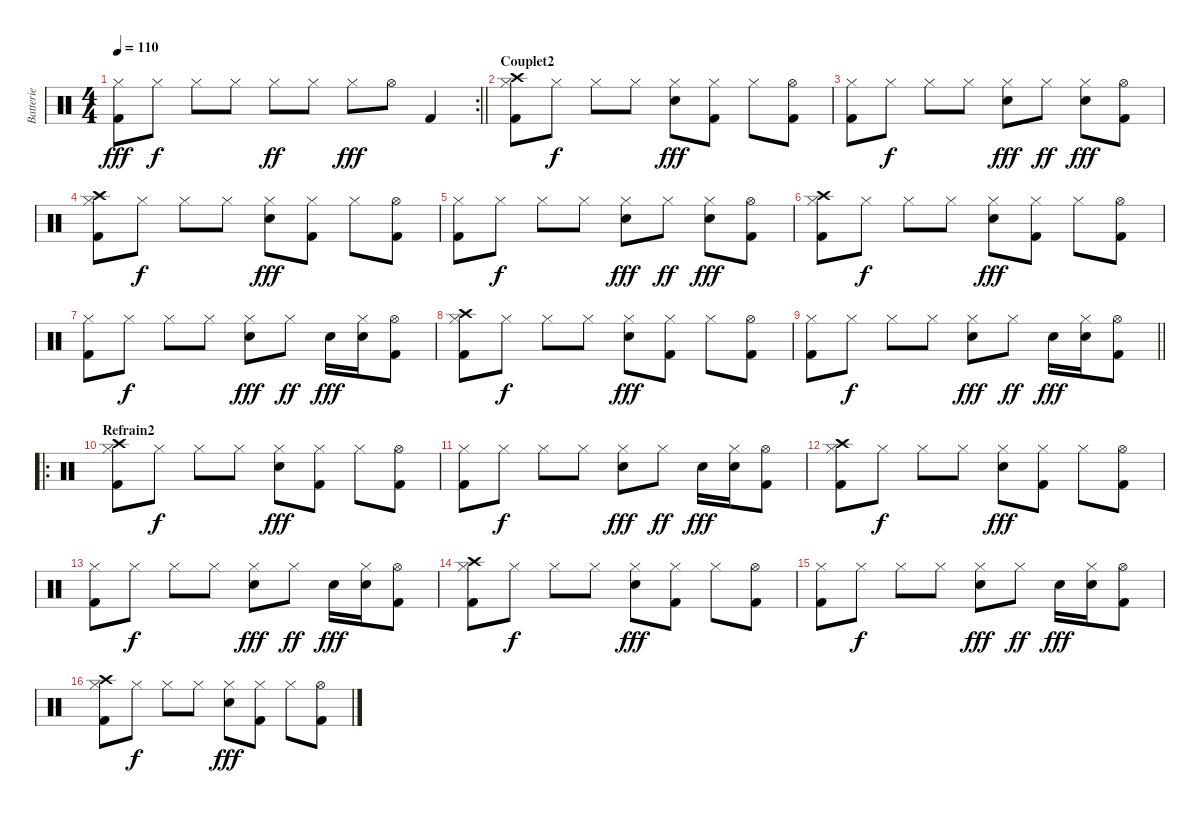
\track ("Batterie" "Batterie") {instrument percussion}
\staff {score}
\articulation defaults
\rc 2
\ts (4 4)
\tempo 110
\clef neutral
\barLineRight lightlight
\ks c
("Hi-Hat (closed)" "Kick (hit) 2").8{dy fff} "Hi-Hat (closed)".8{dy f} "Hi-Hat (closed)".8 "Hi-Hat (closed)".8 "Hi-Hat (closed)".8{dy ff} "Hi-Hat (closed)".8 "Hi-Hat (closed)".8{dy fff} "Hi-Hat (open)".8 "Kick (hit) 2".4 |
\section ("" "Couplet2")
("Hi-Hat (closed)" "Crash high (hit)" "Kick (hit) 2").8 "Hi-Hat (closed)".8{dy f} "Hi-Hat (closed)".8 "Hi-Hat (closed)".8 ("Hi-Hat (closed)" "Electric Snare (hit)").8{dy fff} ("Hi-Hat (closed)" "Kick (hit) 2").8 "Hi-Hat (closed)".8 ("Hi-Hat (open)" "Kick (hit) 2").8 |
("Hi-Hat (closed)" "Kick (hit) 2").8 "Hi-Hat (closed)".8{dy f} "Hi-Hat (closed)".8 "Hi-Hat (closed)".8 ("Hi-Hat (closed)" "Electric Snare (hit)").8{dy fff} "Hi-Hat (closed)".8{dy ff} ("Hi-Hat (closed)" "Electric Snare (hit)").8{dy fff} ("Hi-Hat (open)" "Kick (hit) 2").8 |
("Hi-Hat (closed)" "Crash high (hit)" "Kick (hit) 2").8 "Hi-Hat (closed)".8{dy f} "Hi-Hat (closed)".8 "Hi-Hat (closed)".8 ("Hi-Hat (closed)" "Electric Snare (hit)").8{dy fff} ("Hi-Hat (closed)" "Kick (hit) 2").8 "Hi-Hat (closed)".8 ("Hi-Hat (open)" "Kick (hit) 2").8 |
("Hi-Hat (closed)" "Kick (hit) 2").8 "Hi-Hat (closed)".8{dy f} "Hi-Hat (closed)".8 "Hi-Hat (closed)".8 ("Hi-Hat (closed)" "Electric Snare (hit)").8{dy fff} "Hi-Hat (closed)".8{dy ff} ("Hi-Hat (closed)" "Electric Snare (hit)").8{dy fff} ("Hi-Hat (open)" "Kick (hit) 2").8 |
("Hi-Hat (closed)" "Crash high (hit)" "Kick (hit) 2").8 "Hi-Hat (closed)".8{dy f} "Hi-Hat (closed)".8 "Hi-Hat (closed)".8 ("Hi-Hat (closed)" "Electric Snare (hit)").8{dy fff} ("Hi-Hat (closed)" "Kick (hit) 2").8 "Hi-Hat (closed)".8 ("Hi-Hat (open)" "Kick (hit) 2").8 |
("Hi-Hat (closed)" "Kick (hit) 2").8 "Hi-Hat (closed)".8{dy f} "Hi-Hat (closed)".8 "Hi-Hat (closed)".8 ("Hi-Hat (closed)" "Electric Snare (hit)").8{dy fff} "Hi-Hat (closed)".8{dy ff} "Electric Snare (hit)".16{dy fff} ("Hi-Hat (closed)" "Electric Snare (hit)").16 ("Hi-Hat (open)" "Kick (hit) 2").8 |
("Hi-Hat (closed)" "Crash high (hit)" "Kick (hit) 2").8 "Hi-Hat (closed)".8{dy f} "Hi-Hat (closed)".8 "Hi-Hat (closed)".8 ("Hi-Hat (closed)" "Electric Snare (hit)").8{dy fff} ("Hi-Hat (closed)" "Kick (hit) 2").8 "Hi-Hat (closed)".8 ("Hi-Hat (open)" "Kick (hit) 2").8 |
\barLineRight lightlight
("Hi-Hat (closed)" "Kick (hit) 2").8 "Hi-Hat (closed)".8{dy f} "Hi-Hat (closed)".8 "Hi-Hat (closed)".8 ("Hi-Hat (closed)" "Electric Snare (hit)").8{dy fff} "Hi-Hat (closed)".8{dy ff} "Electric Snare (hit)".16{dy fff} ("Hi-Hat (closed)" "Electric Snare (hit)").16 ("Hi-Hat (open)" "Kick (hit) 2").8 |
\ro
\section ("" "Refrain2")
("Hi-Hat (closed)" "Crash high (hit)" "Kick (hit) 2").8 "Hi-Hat (closed)".8{dy f} "Hi-Hat (closed)".8 "Hi-Hat (closed)".8 ("Hi-Hat (closed)" "Electric Snare (hit)").8{dy fff} ("Hi-Hat (closed)" "Kick (hit) 2").8 "Hi-Hat (closed)".8 ("Hi-Hat (open)" "Kick (hit) 2").8 |
("Hi-Hat (closed)" "Kick (hit) 2").8 "Hi-Hat (closed)".8{dy f} "Hi-Hat (closed)".8 "Hi-Hat (closed)".8 ("Hi-Hat (closed)" "Electric Snare (hit)").8{dy fff} "Hi-Hat (closed)".8{dy ff} "Electric Snare (hit)".16{dy fff} ("Hi-Hat (closed)" "Electric Snare (hit)").16 ("Hi-Hat (open)" "Kick (hit) 2").8 |
("Hi-Hat (closed)" "Crash high (hit)" "Kick (hit) 2").8 "Hi-Hat (closed)".8{dy f} "Hi-Hat (closed)".8 "Hi-Hat (closed)".8 ("Hi-Hat (closed)" "Electric Snare (hit)").8{dy fff} ("Hi-Hat (closed)" "Kick (hit) 2").8 "Hi-Hat (closed)".8 ("Hi-Hat (open)" "Kick (hit) 2").8 |
("Hi-Hat (closed)" "Kick (hit) 2").8 "Hi-Hat (closed)".8{dy f} "Hi-Hat (closed)".8 "Hi-Hat (closed)".8 ("Hi-Hat (closed)" "Electric Snare (hit)").8{dy fff} "Hi-Hat (closed)".8{dy ff} "Electric Snare (hit)".16{dy fff} ("Hi-Hat (closed)" "Electric Snare (hit)").16 ("Hi-Hat (open)" "Kick (hit) 2").8 |
("Hi-Hat (closed)" "Crash high (hit)" "Kick (hit) 2").8 "Hi-Hat (closed)".8{dy f} "Hi-Hat (closed)".8 "Hi-Hat (closed)".8 ("Hi-Hat (closed)" "Electric Snare (hit)").8{dy fff} ("Hi-Hat (closed)" "Kick (hit) 2").8 "Hi-Hat (closed)".8 ("Hi-Hat (open)" "Kick (hit) 2").8 |
("Hi-Hat (closed)" "Kick (hit) 2").8 "Hi-Hat (closed)".8{dy f} "Hi-Hat (closed)".8 "Hi-Hat (closed)".8 ("Hi-Hat (closed)" "Electric Snare (hit)").8{dy fff} "Hi-Hat (closed)".8{dy ff} "Electric Snare (hit)".16{dy fff} ("Hi-Hat (closed)" "Electric Snare (hit)").16 ("Hi-Hat (open)" "Kick (hit) 2").8 |
("Hi-Hat (closed)" "Crash high (hit)" "Kick (hit) 2").8 "Hi-Hat (closed)".8{dy f} "Hi-Hat (closed)".8 "Hi-Hat (closed)".8 ("Hi-Hat (closed)" "Electric Snare (hit)").8{dy fff} ("Hi-Hat (closed)" "Kick (hit) 2").8 "Hi-Hat (closed)".8 ("Hi-Hat (open)" "Kick (hit) 2").8
